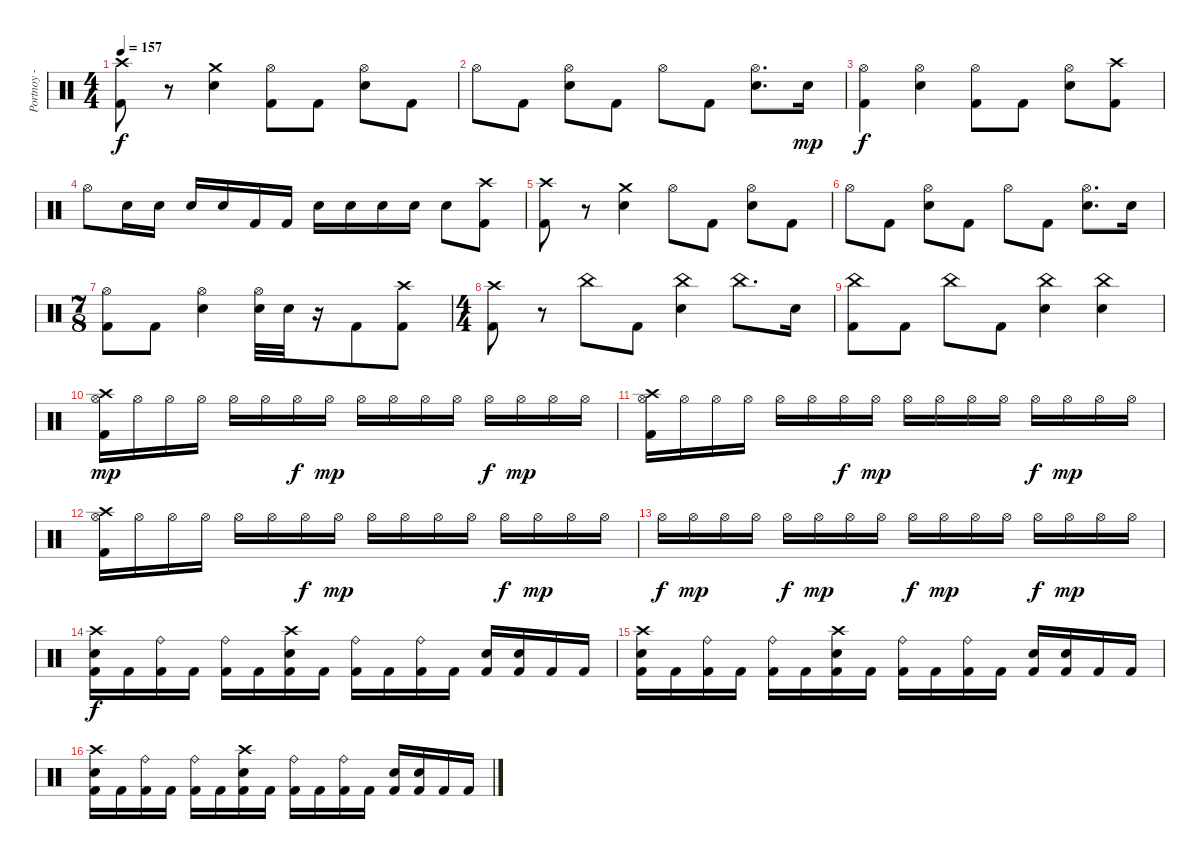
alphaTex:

\track ("Portnoy - Drums" "Portnoy - ") {instrument percussion}
\staff {score}
\articulation defaults
\ts (4 4)
\tempo 157
\clef neutral
\ks c
("Kick (hit) 2" "Crash high (hit)").8{dy f} r.8 ("Electric Snare (hit)" "Crash medium (hit)").4 ("Hi-Hat (open)" "Kick (hit) 2").8 "Kick (hit) 2".8 ("Electric Snare (hit)" "Hi-Hat (open)").8 "Kick (hit) 2".8 |
"Hi-Hat (open)".8 "Kick (hit) 2".8 ("Hi-Hat (open)" "Electric Snare (hit)").8 "Kick (hit) 2".8 "Hi-Hat (open)".8 "Kick (hit) 2".8 ("Hi-Hat (open)" "Electric Snare (hit)").8{d} "Electric Snare (hit)".16{dy mp} |
("Kick (hit) 2" "Hi-Hat (open)").4{dy f} ("Electric Snare (hit)" "Hi-Hat (open)").4 ("Kick (hit) 2" "Hi-Hat (open)").8 "Kick (hit) 2".8 ("Electric Snare (hit)" "Hi-Hat (open)").8 ("Crash high (hit)" "Kick (hit) 2").8 |
"Hi-Hat (open)".8 "Electric Snare (hit)".16 "Electric Snare (hit)".16 "Electric Snare (hit)".16 "Electric Snare (hit)".16 "Kick (hit) 2".16 "Kick (hit) 2".16 "Electric Snare (hit)".16 "Electric Snare (hit)".16 "Electric Snare (hit)".16 "Electric Snare (hit)".16 "Electric Snare (hit)".8 ("Kick (hit) 2" "Crash high (hit)").8 |
("Crash high (hit)" "Kick (hit) 2").8 r.8 ("Electric Snare (hit)" "Crash medium (hit)").4 "Hi-Hat (open)".8 "Kick (hit) 2".8 ("Electric Snare (hit)" "Hi-Hat (open)").8 "Kick (hit) 2".8 |
"Hi-Hat (open)".8 "Kick (hit) 2".8 ("Hi-Hat (open)" "Electric Snare (hit)").8 "Kick (hit) 2".8 "Hi-Hat (open)".8 "Kick (hit) 2".8 ("Hi-Hat (open)" "Electric Snare (hit)").8{d} "Electric Snare (hit)".16 |
\ts (7 8)
("Kick (hit) 2" "Hi-Hat (open)").8 "Kick (hit) 2".8 ("Electric Snare (hit)" "Hi-Hat (open)").4 ("Hi-Hat (open)" "Electric Snare (hit)").32 "Electric Snare (hit)".32 r.16 "Kick (hit) 2".8 ("Crash high (hit)" "Kick (hit) 2").8 |
\ts (4 4)
("Crash high (hit)" "Kick (hit) 2").8 r.8 "China (hit)".8 "Kick (hit) 2".8 ("China (hit)" "Electric Snare (hit)").4 "China (hit)".8{d} "Electric Snare (hit)".16 |
("Kick (hit) 2" "China (hit)").8 "Kick (hit) 2".8 "China (hit)".8 "Kick (hit) 2".8 ("China (hit)" "Electric Snare (hit)").4 ("China (hit)" "Electric Snare (hit)").4 |
("Crash high (hit)" "Kick (hit) 2" "Hi-Hat (open)").16{dy mp} "Hi-Hat (open)".16 "Hi-Hat (open)".16 "Hi-Hat (open)".16 "Hi-Hat (open)".16 "Hi-Hat (open)".16 "Hi-Hat (open)".16{dy f} "Hi-Hat (open)".16{dy mp} "Hi-Hat (open)".16 "Hi-Hat (open)".16 "Hi-Hat (open)".16 "Hi-Hat (open)".16 "Hi-Hat (open)".16{dy f} "Hi-Hat (open)".16{dy mp} "Hi-Hat (open)".16 "Hi-Hat (open)".16 |
("Crash high (hit)" "Kick (hit) 2" "Hi-Hat (open)").16 "Hi-Hat (open)".16 "Hi-Hat (open)".16 "Hi-Hat (open)".16 "Hi-Hat (open)".16 "Hi-Hat (open)".16 "Hi-Hat (open)".16{dy f} "Hi-Hat (open)".16{dy mp} "Hi-Hat (open)".16 "Hi-Hat (open)".16 "Hi-Hat (open)".16 "Hi-Hat (open)".16 "Hi-Hat (open)".16{dy f} "Hi-Hat (open)".16{dy mp} "Hi-Hat (open)".16 "Hi-Hat (open)".16 |
("Hi-Hat (open)" "Crash high (hit)" "Kick (hit) 2").16 "Hi-Hat (open)".16 "Hi-Hat (open)".16 "Hi-Hat (open)".16 "Hi-Hat (open)".16 "Hi-Hat (open)".16 "Hi-Hat (open)".16{dy f} "Hi-Hat (open)".16{dy mp} "Hi-Hat (open)".16 "Hi-Hat (open)".16 "Hi-Hat (open)".16 "Hi-Hat (open)".16 "Hi-Hat (open)".16{dy f} "Hi-Hat (open)".16{dy mp} "Hi-Hat (open)".16 "Hi-Hat (open)".16 |
"Hi-Hat (open)".16{dy f} "Hi-Hat (open)".16{dy mp} "Hi-Hat (open)".16 "Hi-Hat (open)".16 "Hi-Hat (open)".16{dy f} "Hi-Hat (open)".16{dy mp} "Hi-Hat (open)".16 "Hi-Hat (open)".16 "Hi-Hat (open)".16{dy f} "Hi-Hat (open)".16{dy mp} "Hi-Hat (open)".16 "Hi-Hat (open)".16 "Hi-Hat (open)".16{dy f} "Hi-Hat (open)".16{dy mp} "Hi-Hat (open)".16 "Hi-Hat (open)".16 |
("Kick (hit) 2" "Electric Snare (hit)" "Crash high (hit)").16{dy f} "Kick (hit) 2".16 ("Kick (hit) 2" "Ride (bell)").16 "Kick (hit) 2".16 ("Kick (hit) 2" "Ride (bell)").16 "Kick (hit) 2".16 ("Kick (hit) 2" "Electric Snare (hit)" "Crash high (hit)").16 "Kick (hit) 2".16 ("Kick (hit) 2" "Ride (bell)").16 "Kick (hit) 2".16 ("Kick (hit) 2" "Ride (bell)").16 "Kick (hit) 2".16 ("Kick (hit) 2" "Electric Snare (hit)").16 ("Kick (hit) 2" "Electric Snare (hit)").16 "Kick (hit) 2".16 "Kick (hit) 2".16 |
("Kick (hit) 2" "Electric Snare (hit)" "Crash high (hit)").16 "Kick (hit) 2".16 ("Kick (hit) 2" "Ride (bell)").16 "Kick (hit) 2".16 ("Kick (hit) 2" "Ride (bell)").16 "Kick (hit) 2".16 ("Kick (hit) 2" "Electric Snare (hit)" "Crash high (hit)").16 "Kick (hit) 2".16 ("Kick (hit) 2" "Ride (bell)").16 "Kick (hit) 2".16 ("Kick (hit) 2" "Ride (bell)").16 "Kick (hit) 2".16 ("Kick (hit) 2" "Electric Snare (hit)").16 ("Kick (hit) 2" "Electric Snare (hit)").16 "Kick (hit) 2".16 "Kick (hit) 2".16 |
("Kick (hit) 2" "Electric Snare (hit)" "Crash high (hit)").16 "Kick (hit) 2".16 ("Kick (hit) 2" "Ride (bell)").16 "Kick (hit) 2".16 ("Kick (hit) 2" "Ride (bell)").16 "Kick (hit) 2".16 ("Kick (hit) 2" "Electric Snare (hit)" "Crash high (hit)").16 "Kick (hit) 2".16 ("Kick (hit) 2" "Ride (bell)").16 "Kick (hit) 2".16 ("Kick (hit) 2" "Ride (bell)").16 "Kick (hit) 2".16 ("Kick (hit) 2" "Electric Snare (hit)").16 ("Kick (hit) 2" "Electric Snare (hit)").16 "Kick (hit) 2".16 "Kick (hit) 2".16
